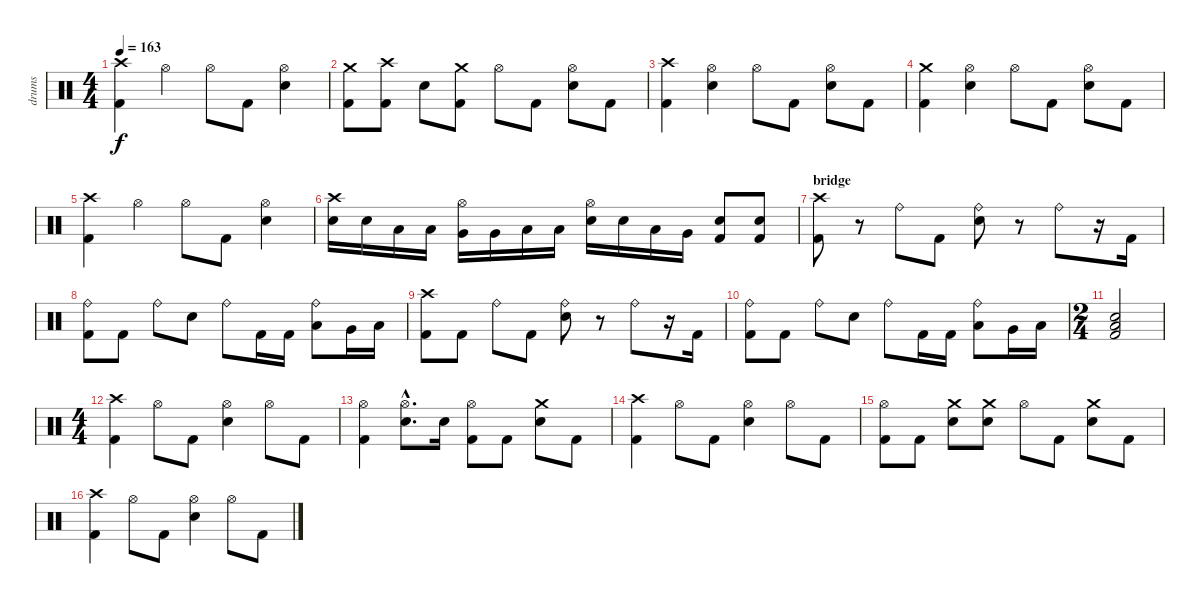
\track ("drums" "drums") {instrument percussion}
\staff {score}
\articulation defaults
\ts (4 4)
\tempo 163
\clef neutral
\ks c
("Crash high (hit)" "Kick (hit) 2").4{dy f} "Hi-Hat (open)".4 "Hi-Hat (open)".8 "Kick (hit) 2".8 ("Hi-Hat (open)" "Electric Snare (hit)").4 |
("Crash medium (hit)" "Kick (hit) 2").8 ("Crash high (hit)" "Kick (hit) 2").8 "Electric Snare (hit)".8 ("Crash medium (hit)" "Kick (hit) 2").8 "Hi-Hat (open)".8 "Kick (hit) 2".8 ("Hi-Hat (open)" "Electric Snare (hit)").8 "Kick (hit) 2".8 |
("Crash high (hit)" "Kick (hit) 2").4 ("Hi-Hat (open)" "Electric Snare (hit)").4 "Hi-Hat (open)".8 "Kick (hit) 2".8 ("Hi-Hat (open)" "Electric Snare (hit)").8 "Kick (hit) 2".8 |
("Crash medium (hit)" "Kick (hit) 2").4 ("Hi-Hat (open)" "Electric Snare (hit)").4 "Hi-Hat (open)".8 "Kick (hit) 2".8 ("Hi-Hat (open)" "Electric Snare (hit)").8 "Kick (hit) 2".8 |
("Crash high (hit)" "Kick (hit) 2").4 "Hi-Hat (open)".4 "Hi-Hat (open)".8 "Kick (hit) 2".8 ("Hi-Hat (open)" "Electric Snare (hit)").4 |
("Crash high (hit)" "Electric Snare (hit)").16 "Electric Snare (hit)".16 "Low Tom (hit)".16 "Low Tom (hit)".16 ("Hi-Hat (open)" "Very Low Tom (hit)").16 "Very Low Tom (hit)".16 "Low Floor Tom (hit)".16 "Low Floor Tom (hit)".16 ("Hi-Hat (open)" "Electric Snare (hit)").16 "Electric Snare (hit)".16 "Low Tom (hit)".16 "Very Low Tom (hit)".16 ("Electric Snare (hit)" "Kick (hit) 2").8 ("Electric Snare (hit)" "Kick (hit) 2").8 |
\section ("" "bridge")
("Crash high (hit)" "Kick (hit) 2").8 r.8 "Ride (bell)".8 "Kick (hit) 2".8 ("Ride (bell)" "Electric Snare (hit)").8 r.8 "Ride (bell)".8 r.16 "Kick (hit) 2".16 |
("Ride (bell)" "Kick (hit) 2").8 "Kick (hit) 2".8 "Ride (bell)".8 "Electric Snare (hit)".8 "Ride (bell)".8 "Kick (hit) 2".16 "Kick (hit) 2".16 ("Ride (bell)" "Low Tom (hit)").8 "Very Low Tom (hit)".16 "Low Floor Tom (hit)".16 |
("Crash high (hit)" "Kick (hit) 2").8 "Kick (hit) 2".8 "Ride (bell)".8 "Kick (hit) 2".8 ("Ride (bell)" "Electric Snare (hit)").8 r.8 "Ride (bell)".8 r.16 "Kick (hit) 2".16 |
("Ride (bell)" "Kick (hit) 2").8 "Kick (hit) 2".8 "Ride (bell)".8 "Electric Snare (hit)".8 "Ride (bell)".8 "Kick (hit) 2".16 "Kick (hit) 2".16 ("Ride (bell)" "Low Tom (hit)").8 "Very Low Tom (hit)".16 "Low Floor Tom (hit)".16 |
\ts (2 4)
("Low Floor Tom (hit)" "Electric Snare (hit)" "Kick (hit) 2").2 |
\ts (4 4)
("Crash high (hit)" "Kick (hit) 2").4 "Hi-Hat (open)".8 "Kick (hit) 2".8 ("Hi-Hat (open)" "Electric Snare (hit)").4 "Hi-Hat (open)".8 "Kick (hit) 2".8 |
("Hi-Hat (open)" "Kick (hit) 2").4 ("Hi-Hat (open)"{hac} "Electric Snare (hit)"{hac}).8{d} "Electric Snare (hit)".16 ("Hi-Hat (open)" "Kick (hit) 2").8 "Kick (hit) 2".8 ("Crash medium (hit)" "Electric Snare (hit)").8 "Kick (hit) 2".8 |
("Crash high (hit)" "Kick (hit) 2").4 "Hi-Hat (open)".8 "Kick (hit) 2".8 ("Hi-Hat (open)" "Electric Snare (hit)").4 "Hi-Hat (open)".8 "Kick (hit) 2".8 |
("Hi-Hat (open)" "Kick (hit) 2").8 "Kick (hit) 2".8 ("Crash medium (hit)" "Electric Snare (hit)").8 ("Crash medium (hit)" "Electric Snare (hit)").8 "Hi-Hat (open)".8 "Kick (hit) 2".8 ("Crash medium (hit)" "Electric Snare (hit)").8 "Kick (hit) 2".8 |
("Crash high (hit)" "Kick (hit) 2").4 "Hi-Hat (open)".8 "Kick (hit) 2".8 ("Hi-Hat (open)" "Electric Snare (hit)").4 "Hi-Hat (open)".8 "Kick (hit) 2".8
